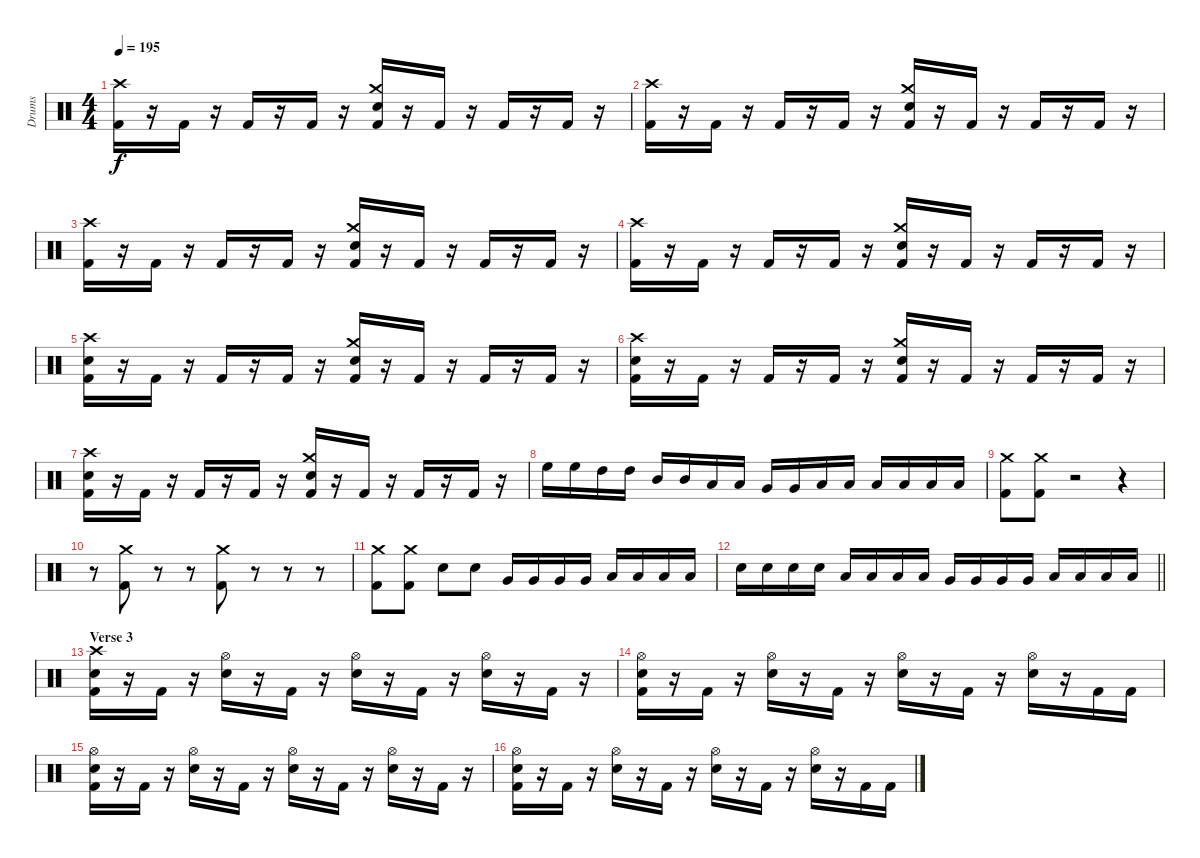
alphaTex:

\track ("Drums" "Drums") {instrument percussion}
\staff {score}
\articulation defaults
\ts (4 4)
\tempo 195
\clef neutral
\ks c
("Crash high (hit)" "Kick (hit) 2").16{dy f} r.16 "Kick (hit) 2".16 r.16 "Kick (hit) 2".16 r.16 "Kick (hit) 2".16 r.16 ("Crash medium (hit)" "Electric Snare (hit)" "Kick (hit) 2").16 r.16 "Kick (hit) 2".16 r.16 "Kick (hit) 2".16 r.16 "Kick (hit) 2".16 r.16 |
("Crash high (hit)" "Kick (hit) 2").16 r.16 "Kick (hit) 2".16 r.16 "Kick (hit) 2".16 r.16 "Kick (hit) 2".16 r.16 ("Crash medium (hit)" "Electric Snare (hit)" "Kick (hit) 2").16 r.16 "Kick (hit) 2".16 r.16 "Kick (hit) 2".16 r.16 "Kick (hit) 2".16 r.16 |
("Crash high (hit)" "Kick (hit) 2").16 r.16 "Kick (hit) 2".16 r.16 "Kick (hit) 2".16 r.16 "Kick (hit) 2".16 r.16 ("Crash medium (hit)" "Electric Snare (hit)" "Kick (hit) 2").16 r.16 "Kick (hit) 2".16 r.16 "Kick (hit) 2".16 r.16 "Kick (hit) 2".16 r.16 |
("Crash high (hit)" "Kick (hit) 2").16 r.16 "Kick (hit) 2".16 r.16 "Kick (hit) 2".16 r.16 "Kick (hit) 2".16 r.16 ("Crash medium (hit)" "Electric Snare (hit)" "Kick (hit) 2").16 r.16 "Kick (hit) 2".16 r.16 "Kick (hit) 2".16 r.16 "Kick (hit) 2".16 r.16 |
("Crash high (hit)" "Electric Snare (hit)" "Kick (hit) 2").16 r.16 "Kick (hit) 2".16 r.16 "Kick (hit) 2".16 r.16 "Kick (hit) 2".16 r.16 ("Crash medium (hit)" "Electric Snare (hit)" "Kick (hit) 2").16 r.16 "Kick (hit) 2".16 r.16 "Kick (hit) 2".16 r.16 "Kick (hit) 2".16 r.16 |
("Crash high (hit)" "Electric Snare (hit)" "Kick (hit) 2").16 r.16 "Kick (hit) 2".16 r.16 "Kick (hit) 2".16 r.16 "Kick (hit) 2".16 r.16 ("Crash medium (hit)" "Electric Snare (hit)" "Kick (hit) 2").16 r.16 "Kick (hit) 2".16 r.16 "Kick (hit) 2".16 r.16 "Kick (hit) 2".16 r.16 |
("Crash high (hit)" "Electric Snare (hit)" "Kick (hit) 2").16 r.16 "Kick (hit) 2".16 r.16 "Kick (hit) 2".16 r.16 "Kick (hit) 2".16 r.16 ("Crash medium (hit)" "Electric Snare (hit)" "Kick (hit) 2").16 r.16 "Kick (hit) 2".16 r.16 "Kick (hit) 2".16 r.16 "Kick (hit) 2".16 r.16 |
"High Floor Tom (hit)".16 "High Floor Tom (hit)".16 "High Tom (hit)".16 "High Tom (hit)".16 "Mid Tom (hit)".16 "Mid Tom (hit)".16 "Low Tom (hit)".16 "Low Tom (hit)".16 "Very Low Tom (hit)".16 "Very Low Tom (hit)".16 "Low Floor Tom (hit)".16 "Low Floor Tom (hit)".16 "Low Floor Tom (hit)".16 "Low Floor Tom (hit)".16 "Low Floor Tom (hit)".16 "Low Floor Tom (hit)".16 |
("Crash medium (hit)" "Kick (hit) 2").8 ("Crash medium (hit)" "Kick (hit) 2").8 r.2 r.4 |
r.8 ("Crash medium (hit)" "Kick (hit) 2").8 r.8 r.8 ("Crash medium (hit)" "Kick (hit) 2").8 r.8 r.8 r.8 |
("Crash medium (hit)" "Kick (hit) 2").8 ("Crash medium (hit)" "Kick (hit) 2").8 "Electric Snare (hit)".8 "Electric Snare (hit)".8 "Very Low Tom (hit)".16 "Very Low Tom (hit)".16 "Very Low Tom (hit)".16 "Very Low Tom (hit)".16 "Low Floor Tom (hit)".16 "Low Floor Tom (hit)".16 "Low Floor Tom (hit)".16 "Low Floor Tom (hit)".16 |
\barLineRight lightlight "Electric Snare (hit)".16 "Electric Snare (hit)".16 "Electric Snare (hit)".16 "Electric Snare (hit)".16 "Low Tom (hit)".16 "Low Tom (hit)".16 "Low Tom (hit)".16 "Low Tom (hit)".16 "Very Low Tom (hit)".16 "Very Low Tom (hit)".16 "Very Low Tom (hit)".16 "Very Low Tom (hit)".16 "Low Floor Tom (hit)".16 "Low Floor Tom (hit)".16 "Low Floor Tom (hit)".16 "Low Floor Tom (hit)".16
|
\section ("" "Verse 3")
("Crash high (hit)" "Electric Snare (hit)" "Kick (hit) 2").16 r.16 "Kick (hit) 2".16 r.16 ("Hi-Hat (open)" "Electric Snare (hit)").16 r.16 "Kick (hit) 2".16 r.16 ("Hi-Hat (open)" "Electric Snare (hit)").16 r.16 "Kick (hit) 2".16 r.16 ("Hi-Hat (open)" "Electric Snare (hit)").16 r.16 "Kick (hit) 2".16 r.16 |
("Hi-Hat (open)" "Electric Snare (hit)" "Kick (hit) 2").16 r.16 "Kick (hit) 2".16 r.16 ("Hi-Hat (open)" "Electric Snare (hit)").16 r.16 "Kick (hit) 2".16 r.16 ("Hi-Hat (open)" "Electric Snare (hit)").16 r.16 "Kick (hit) 2".16 r.16 ("Hi-Hat (open)" "Electric Snare (hit)").16 r.16 "Kick (hit) 2".16 "Kick (hit) 2".16 |
("Hi-Hat (open)" "Electric Snare (hit)" "Kick (hit) 2").16 r.16 "Kick (hit) 2".16 r.16 ("Hi-Hat (open)" "Electric Snare (hit)").16 r.16 "Kick (hit) 2".16 r.16 ("Hi-Hat (open)" "Electric Snare (hit)").16 r.16 "Kick (hit) 2".16 r.16 ("Hi-Hat (open)" "Electric Snare (hit)").16 r.16 "Kick (hit) 2".16 r.16 |
("Hi-Hat (open)" "Electric Snare (hit)" "Kick (hit) 2").16 r.16 "Kick (hit) 2".16 r.16 ("Hi-Hat (open)" "Electric Snare (hit)").16 r.16 "Kick (hit) 2".16 r.16 ("Hi-Hat (open)" "Electric Snare (hit)").16 r.16 "Kick (hit) 2".16 r.16 ("Hi-Hat (open)" "Electric Snare (hit)").16 r.16 "Kick (hit) 2".16 "Kick (hit) 2".16
